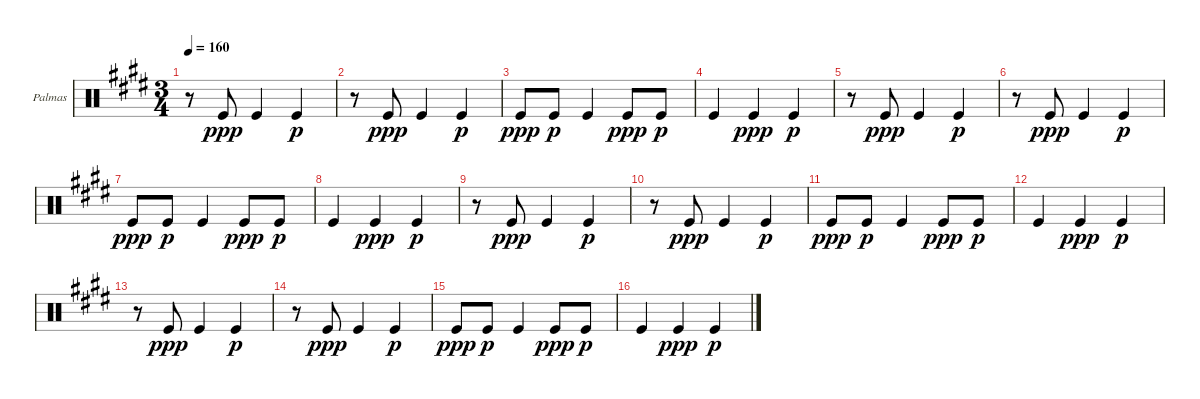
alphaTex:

\defaultSystemsLayout 4
\bracketExtendMode groupsimilarinstruments
\firstSystemTrackNameOrientation horizontal
\otherSystemsTrackNameOrientation horizontal
\track ("Palmas" "Palmas") {instrument percussion}
\staff {score}
\articulation defaults
\ts (3 4)
\tempo 160
\clef neutral
\ks e
r.8{dy ppp} "Kick (hit)".8 "Kick (hit)".4 "Kick (hit)".4{dy p} |
r.8 "Kick (hit)".8{dy ppp} "Kick (hit)".4 "Kick (hit)".4{dy p} |
"Kick (hit)".8{dy ppp} "Kick (hit)".8{dy p} "Kick (hit)".4 "Kick (hit)".8{dy ppp} "Kick (hit)".8{dy p} |
"Kick (hit)".4 "Kick (hit)".4{dy ppp} "Kick (hit)".4{dy p} |
r.8 "Kick (hit)".8{dy ppp} "Kick (hit)".4 "Kick (hit)".4{dy p} |
r.8 "Kick (hit)".8{dy ppp} "Kick (hit)".4 "Kick (hit)".4{dy p} |
"Kick (hit)".8{dy ppp} "Kick (hit)".8{dy p} "Kick (hit)".4 "Kick (hit)".8{dy ppp} "Kick (hit)".8{dy p} |
"Kick (hit)".4 "Kick (hit)".4{dy ppp} "Kick (hit)".4{dy p} |
r.8 "Kick (hit)".8{dy ppp} "Kick (hit)".4 "Kick (hit)".4{dy p} |
r.8 "Kick (hit)".8{dy ppp} "Kick (hit)".4 "Kick (hit)".4{dy p} |
"Kick (hit)".8{dy ppp} "Kick (hit)".8{dy p} "Kick (hit)".4 "Kick (hit)".8{dy ppp} "Kick (hit)".8{dy p} |
"Kick (hit)".4 "Kick (hit)".4{dy ppp} "Kick (hit)".4{dy p} |
r.8 "Kick (hit)".8{dy ppp} "Kick (hit)".4 "Kick (hit)".4{dy p} |
r.8 "Kick (hit)".8{dy ppp} "Kick (hit)".4 "Kick (hit)".4{dy p} |
"Kick (hit)".8{dy ppp} "Kick (hit)".8{dy p} "Kick (hit)".4 "Kick (hit)".8{dy ppp} "Kick (hit)".8{dy p} |
"Kick (hit)".4 "Kick (hit)".4{dy ppp} "Kick (hit)".4{dy p}
